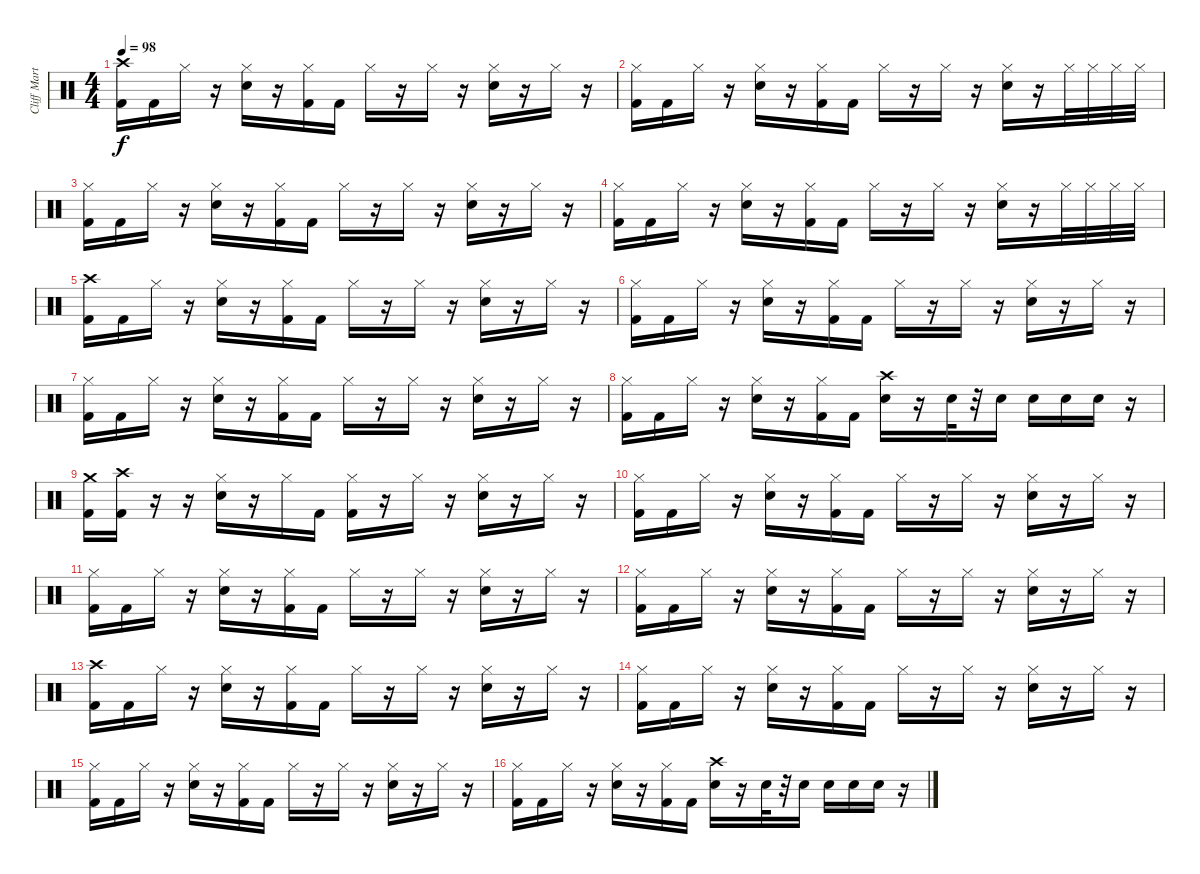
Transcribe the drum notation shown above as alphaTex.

\track ("Cliff Martinez" "Cliff Mart") {instrument percussion bank 1}
\staff {score}
\articulation defaults
\ts (4 4)
\tempo 98
\clef neutral
\ks c
("Crash high (hit)" "Kick (hit) 2").16{dy f} "Kick (hit) 2".16 "Hi-Hat (closed)".16 r.16 ("Hi-Hat (closed)" "Snare (hit) 2").16 r.16 ("Hi-Hat (closed)" "Kick (hit) 2").16 "Kick (hit) 2".16 "Hi-Hat (closed)".16 r.16 "Hi-Hat (closed)".16 r.16 ("Hi-Hat (closed)" "Snare (hit) 2").16 r.16 "Hi-Hat (closed)".16 r.16 |
("Hi-Hat (closed)" "Kick (hit) 2").16 "Kick (hit) 2".16 "Hi-Hat (closed)".16 r.16 ("Hi-Hat (closed)" "Snare (hit) 2").16 r.16 ("Hi-Hat (closed)" "Kick (hit) 2").16 "Kick (hit) 2".16 "Hi-Hat (closed)".16 r.16 "Hi-Hat (closed)".16 r.16 ("Hi-Hat (closed)" "Snare (hit) 2").16 r.16 "Hi-Hat (closed)".32 "Hi-Hat (closed)".32 "Hi-Hat (closed)".32 "Hi-Hat (closed)".32 |
("Hi-Hat (closed)" "Kick (hit) 2").16 "Kick (hit) 2".16 "Hi-Hat (closed)".16 r.16 ("Hi-Hat (closed)" "Snare (hit) 2").16 r.16 ("Hi-Hat (closed)" "Kick (hit) 2").16 "Kick (hit) 2".16 "Hi-Hat (closed)".16 r.16 "Hi-Hat (closed)".16 r.16 ("Hi-Hat (closed)" "Snare (hit) 2").16 r.16 "Hi-Hat (closed)".16 r.16 |
("Hi-Hat (closed)" "Kick (hit) 2").16 "Kick (hit) 2".16 "Hi-Hat (closed)".16 r.16 ("Hi-Hat (closed)" "Snare (hit) 2").16 r.16 ("Hi-Hat (closed)" "Kick (hit) 2").16 "Kick (hit) 2".16 "Hi-Hat (closed)".16 r.16 "Hi-Hat (closed)".16 r.16 ("Hi-Hat (closed)" "Snare (hit) 2").16 r.16 "Hi-Hat (closed)".32 "Hi-Hat (closed)".32 "Hi-Hat (closed)".32 "Hi-Hat (closed)".32 |
("Crash high (hit)" "Kick (hit) 2").16 "Kick (hit) 2".16 "Hi-Hat (closed)".16 r.16 ("Hi-Hat (closed)" "Snare (hit) 2").16 r.16 ("Hi-Hat (closed)" "Kick (hit) 2").16 "Kick (hit) 2".16 "Hi-Hat (closed)".16 r.16 "Hi-Hat (closed)".16 r.16 ("Hi-Hat (closed)" "Snare (hit) 2").16 r.16 "Hi-Hat (closed)".16 r.16 |
("Hi-Hat (closed)" "Kick (hit) 2").16 "Kick (hit) 2".16 "Hi-Hat (closed)".16 r.16 ("Hi-Hat (closed)" "Snare (hit) 2").16 r.16 ("Hi-Hat (closed)" "Kick (hit) 2").16 "Kick (hit) 2".16 "Hi-Hat (closed)".16 r.16 "Hi-Hat (closed)".16 r.16 ("Hi-Hat (closed)" "Snare (hit) 2").16 r.16 "Hi-Hat (closed)".16 r.16 |
("Hi-Hat (closed)" "Kick (hit) 2").16 "Kick (hit) 2".16 "Hi-Hat (closed)".16 r.16 ("Hi-Hat (closed)" "Snare (hit) 2").16 r.16 ("Hi-Hat (closed)" "Kick (hit) 2").16 "Kick (hit) 2".16 "Hi-Hat (closed)".16 r.16 "Hi-Hat (closed)".16 r.16 ("Hi-Hat (closed)" "Snare (hit) 2").16 r.16 "Hi-Hat (closed)".16 r.16 |
("Hi-Hat (closed)" "Kick (hit) 2").16 "Kick (hit) 2".16 "Hi-Hat (closed)".16 r.16 ("Hi-Hat (closed)" "Snare (hit) 2").16 r.16 ("Hi-Hat (closed)" "Kick (hit) 2").16 "Kick (hit) 2".16 ("Crash high (hit)" "Snare (hit) 2").16 r.16 "Snare (hit) 2".32 r.32 "Snare (hit) 2".16 "Snare (hit) 2".16 "Snare (hit) 2".16 "Snare (hit) 2".16 r.16 |
("Crash medium (hit)" "Kick (hit) 2").16 ("Crash high (hit)" "Kick (hit) 2").16 r.16 r.16 ("Hi-Hat (closed)" "Snare (hit) 2").16 r.16 "Hi-Hat (closed)".16 "Kick (hit) 2".16 ("Hi-Hat (closed)" "Kick (hit) 2").16 r.16 "Hi-Hat (closed)".16 r.16 ("Hi-Hat (closed)" "Snare (hit) 2").16 r.16 "Hi-Hat (closed)".16 r.16 |
("Hi-Hat (closed)" "Kick (hit) 2").16 "Kick (hit) 2".16 "Hi-Hat (closed)".16 r.16 ("Hi-Hat (closed)" "Snare (hit) 2").16 r.16 ("Hi-Hat (closed)" "Kick (hit) 2").16 "Kick (hit) 2".16 "Hi-Hat (closed)".16 r.16 "Hi-Hat (closed)".16 r.16 ("Hi-Hat (closed)" "Snare (hit) 2").16 r.16 "Hi-Hat (closed)".16 r.16 |
("Hi-Hat (closed)" "Kick (hit) 2").16 "Kick (hit) 2".16 "Hi-Hat (closed)".16 r.16 ("Hi-Hat (closed)" "Snare (hit) 2").16 r.16 ("Hi-Hat (closed)" "Kick (hit) 2").16 "Kick (hit) 2".16 "Hi-Hat (closed)".16 r.16 "Hi-Hat (closed)".16 r.16 ("Hi-Hat (closed)" "Snare (hit) 2").16 r.16 "Hi-Hat (closed)".16 r.16 |
("Hi-Hat (closed)" "Kick (hit) 2").16 "Kick (hit) 2".16 "Hi-Hat (closed)".16 r.16 ("Hi-Hat (closed)" "Snare (hit) 2").16 r.16 ("Hi-Hat (closed)" "Kick (hit) 2").16 "Kick (hit) 2".16 "Hi-Hat (closed)".16 r.16 "Hi-Hat (closed)".16 r.16 ("Hi-Hat (closed)" "Snare (hit) 2").16 r.16 "Hi-Hat (closed)".16 r.16 |
("Crash high (hit)" "Kick (hit) 2").16 "Kick (hit) 2".16 "Hi-Hat (closed)".16 r.16 ("Hi-Hat (closed)" "Snare (hit) 2").16 r.16 ("Hi-Hat (closed)" "Kick (hit) 2").16 "Kick (hit) 2".16 "Hi-Hat (closed)".16 r.16 "Hi-Hat (closed)".16 r.16 ("Hi-Hat (closed)" "Snare (hit) 2").16 r.16 "Hi-Hat (closed)".16 r.16 |
("Hi-Hat (closed)" "Kick (hit) 2").16 "Kick (hit) 2".16 "Hi-Hat (closed)".16 r.16 ("Hi-Hat (closed)" "Snare (hit) 2").16 r.16 ("Hi-Hat (closed)" "Kick (hit) 2").16 "Kick (hit) 2".16 "Hi-Hat (closed)".16 r.16 "Hi-Hat (closed)".16 r.16 ("Hi-Hat (closed)" "Snare (hit) 2").16 r.16 "Hi-Hat (closed)".16 r.16 |
("Hi-Hat (closed)" "Kick (hit) 2").16 "Kick (hit) 2".16 "Hi-Hat (closed)".16 r.16 ("Hi-Hat (closed)" "Snare (hit) 2").16 r.16 ("Hi-Hat (closed)" "Kick (hit) 2").16 "Kick (hit) 2".16 "Hi-Hat (closed)".16 r.16 "Hi-Hat (closed)".16 r.16 ("Hi-Hat (closed)" "Snare (hit) 2").16 r.16 "Hi-Hat (closed)".16 r.16 |
("Hi-Hat (closed)" "Kick (hit) 2").16 "Kick (hit) 2".16 "Hi-Hat (closed)".16 r.16 ("Hi-Hat (closed)" "Snare (hit) 2").16 r.16 ("Hi-Hat (closed)" "Kick (hit) 2").16 "Kick (hit) 2".16 ("Crash high (hit)" "Snare (hit) 2").16 r.16 "Snare (hit) 2".32 r.32 "Snare (hit) 2".16 "Snare (hit) 2".16 "Snare (hit) 2".16 "Snare (hit) 2".16 r.16
